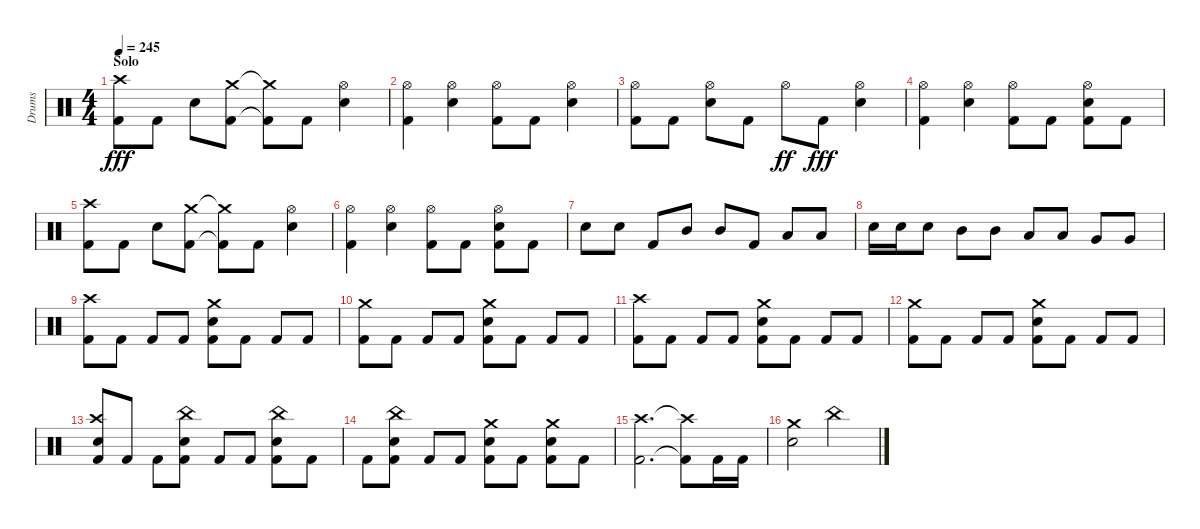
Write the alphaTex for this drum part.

\track ("Drums" "Drums") {instrument percussion}
\staff {score}
\articulation defaults
\ts (4 4)
\section ("" "Solo")
\tempo 245
\clef neutral
\ks aminor
("Kick (hit) 2" "Crash high (hit)").8{dy fff} "Kick (hit) 2".8 "Snare (hit) 2".8 ("Kick (hit) 2" "Crash medium (hit)").8 ("Kick (hit) 2"{t} "Crash medium (hit)"{t}).8 "Kick (hit) 2".8 ("Snare (hit) 2" "Hi-Hat (open)").4 |
("Kick (hit) 2" "Hi-Hat (open)").4 ("Snare (hit) 2" "Hi-Hat (open)").4 ("Kick (hit) 2" "Hi-Hat (open)").8 "Kick (hit) 2".8 ("Snare (hit) 2" "Hi-Hat (open)").4 |
("Kick (hit) 2" "Hi-Hat (open)").8 "Kick (hit) 2".8 ("Snare (hit) 2" "Hi-Hat (open)").8 "Kick (hit) 2".8 "Hi-Hat (open)".8{dy ff} "Kick (hit) 2".8{dy fff} ("Snare (hit) 2" "Hi-Hat (open)").4 |
("Kick (hit) 2" "Hi-Hat (open)").4 ("Snare (hit) 2" "Hi-Hat (open)").4 ("Kick (hit) 2" "Hi-Hat (open)").8 "Kick (hit) 2".8 ("Kick (hit) 2" "Snare (hit) 2" "Hi-Hat (open)").8 "Kick (hit) 2".8 |
("Kick (hit) 2" "Crash high (hit)").8 "Kick (hit) 2".8 "Snare (hit) 2".8 ("Kick (hit) 2" "Crash medium (hit)").8 ("Kick (hit) 2"{t} "Crash medium (hit)"{t}).8 "Kick (hit) 2".8 ("Snare (hit) 2" "Hi-Hat (open)").4 |
("Kick (hit) 2" "Hi-Hat (open)").4 ("Snare (hit) 2" "Hi-Hat (open)").4 ("Kick (hit) 2" "Hi-Hat (open)").8 "Kick (hit) 2".8 ("Kick (hit) 2" "Snare (hit) 2" "Hi-Hat (open)").8 "Kick (hit) 2".8 |
"Snare (hit) 2".8 "Snare (hit) 2".8 "Kick (hit) 2".8 "Mid Tom (hit)".8 "Mid Tom (hit)".8 "Kick (hit) 2".8 "Low Tom (hit)".8 "Low Tom (hit)".8 |
"Snare (hit) 2".16 "Snare (hit) 2".16 "Snare (hit) 2".8 "Mid Tom (hit)".8 "Mid Tom (hit)".8 "Low Tom (hit)".8 "Low Tom (hit)".8 "Very Low Tom (hit)".8 "Very Low Tom (hit)".8 |
("Kick (hit) 2" "Crash high (hit)").8 "Kick (hit) 2".8 "Kick (hit) 2".8 "Kick (hit) 2".8 ("Kick (hit) 2" "Snare (hit) 2" "Crash medium (hit)").8 "Kick (hit) 2".8 "Kick (hit) 2".8 "Kick (hit) 2".8 |
("Kick (hit) 2" "Crash medium (hit)").8 "Kick (hit) 2".8 "Kick (hit) 2".8 "Kick (hit) 2".8 ("Kick (hit) 2" "Snare (hit) 2" "Crash medium (hit)").8 "Kick (hit) 2".8 "Kick (hit) 2".8 "Kick (hit) 2".8 |
("Kick (hit) 2" "Crash high (hit)").8 "Kick (hit) 2".8 "Kick (hit) 2".8 "Kick (hit) 2".8 ("Kick (hit) 2" "Snare (hit) 2" "Crash medium (hit)").8 "Kick (hit) 2".8 "Kick (hit) 2".8 "Kick (hit) 2".8 |
("Kick (hit) 2" "Crash medium (hit)").8 "Kick (hit) 2".8 "Kick (hit) 2".8 "Kick (hit) 2".8 ("Kick (hit) 2" "Snare (hit) 2" "Crash medium (hit)").8 "Kick (hit) 2".8 "Kick (hit) 2".8 "Kick (hit) 2".8 |
("Kick (hit) 2" "Snare (hit) 2" "Crash high (hit)").8 "Kick (hit) 2".8 "Kick (hit) 2".8 ("Kick (hit) 2" "Snare (hit) 2" "China (hit)").8 "Kick (hit) 2".8 "Kick (hit) 2".8 ("Kick (hit) 2" "Snare (hit) 2" "China (hit)").8 "Kick (hit) 2".8 |
"Kick (hit) 2".8 ("Kick (hit) 2" "Snare (hit) 2" "China (hit)").8 "Kick (hit) 2".8 "Kick (hit) 2".8 ("Kick (hit) 2" "Snare (hit) 2" "Crash medium (hit)").8 "Kick (hit) 2".8 ("Kick (hit) 2" "Snare (hit) 2" "Crash medium (hit)").8 "Kick (hit) 2".8 |
("Kick (hit) 2" "Crash high (hit)").2{d} ("Kick (hit) 2"{t} "Crash high (hit)"{t}).8 "Kick (hit) 2".16 "Kick (hit) 2".16 |
("Snare (hit) 2" "Crash medium (hit)").2 "China (hit)".2
